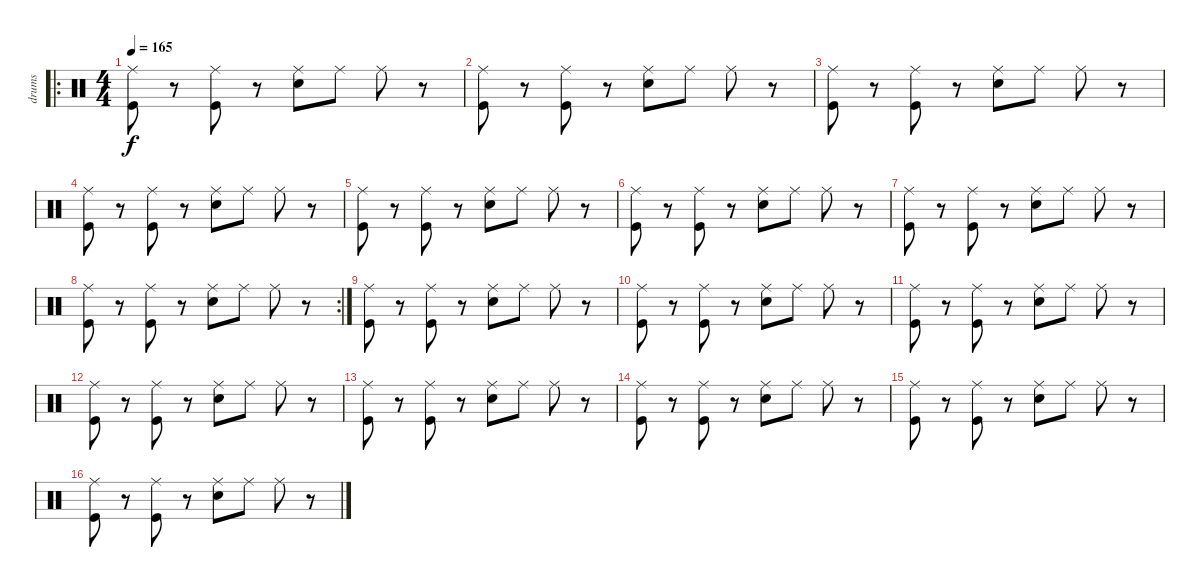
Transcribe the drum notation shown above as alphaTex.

\track ("drums" "drums") {instrument percussion}
\staff {score}
\articulation defaults
\ro
\ts (4 4)
\tempo 165
\clef neutral
\ks c
("Kick (hit)" "Ride (middle)").8{dy f} r.8 ("Kick (hit)" "Ride (middle)").8 r.8 ("Snare (hit) 2" "Ride (middle)").8 "Ride (middle)".8 "Ride (middle)".8 r.8 |
("Kick (hit)" "Ride (middle)").8 r.8 ("Kick (hit)" "Ride (middle)").8 r.8 ("Snare (hit) 2" "Ride (middle)").8 "Ride (middle)".8 "Ride (middle)".8 r.8 |
("Kick (hit)" "Ride (middle)").8 r.8 ("Kick (hit)" "Ride (middle)").8 r.8 ("Snare (hit) 2" "Ride (middle)").8 "Ride (middle)".8 "Ride (middle)".8 r.8 |
("Kick (hit)" "Ride (middle)").8 r.8 ("Kick (hit)" "Ride (middle)").8 r.8 ("Snare (hit) 2" "Ride (middle)").8 "Ride (middle)".8 "Ride (middle)".8 r.8 |
("Kick (hit)" "Ride (middle)").8 r.8 ("Kick (hit)" "Ride (middle)").8 r.8 ("Snare (hit) 2" "Ride (middle)").8 "Ride (middle)".8 "Ride (middle)".8 r.8 |
("Kick (hit)" "Ride (middle)").8 r.8 ("Kick (hit)" "Ride (middle)").8 r.8 ("Snare (hit) 2" "Ride (middle)").8 "Ride (middle)".8 "Ride (middle)".8 r.8 |
("Kick (hit)" "Ride (middle)").8 r.8 ("Kick (hit)" "Ride (middle)").8 r.8 ("Snare (hit) 2" "Ride (middle)").8 "Ride (middle)".8 "Ride (middle)".8 r.8 |
\rc 2
("Kick (hit)" "Ride (middle)").8 r.8 ("Kick (hit)" "Ride (middle)").8 r.8 ("Snare (hit) 2" "Ride (middle)").8 "Ride (middle)".8 "Ride (middle)".8 r.8 |
("Kick (hit)" "Ride (middle)").8 r.8 ("Kick (hit)" "Ride (middle)").8 r.8 ("Snare (hit) 2" "Ride (middle)").8 "Ride (middle)".8 "Ride (middle)".8 r.8 |
("Kick (hit)" "Ride (middle)").8 r.8 ("Kick (hit)" "Ride (middle)").8 r.8 ("Snare (hit) 2" "Ride (middle)").8 "Ride (middle)".8 "Ride (middle)".8 r.8 |
("Kick (hit)" "Ride (middle)").8 r.8 ("Kick (hit)" "Ride (middle)").8 r.8 ("Snare (hit) 2" "Ride (middle)").8 "Ride (middle)".8 "Ride (middle)".8 r.8 |
("Kick (hit)" "Ride (middle)").8 r.8 ("Kick (hit)" "Ride (middle)").8 r.8 ("Snare (hit) 2" "Ride (middle)").8 "Ride (middle)".8 "Ride (middle)".8 r.8 |
("Kick (hit)" "Ride (middle)").8 r.8 ("Kick (hit)" "Ride (middle)").8 r.8 ("Snare (hit) 2" "Ride (middle)").8 "Ride (middle)".8 "Ride (middle)".8 r.8 |
("Kick (hit)" "Ride (middle)").8 r.8 ("Kick (hit)" "Ride (middle)").8 r.8 ("Snare (hit) 2" "Ride (middle)").8 "Ride (middle)".8 "Ride (middle)".8 r.8 |
("Kick (hit)" "Ride (middle)").8 r.8 ("Kick (hit)" "Ride (middle)").8 r.8 ("Snare (hit) 2" "Ride (middle)").8 "Ride (middle)".8 "Ride (middle)".8 r.8 |
("Kick (hit)" "Ride (middle)").8 r.8 ("Kick (hit)" "Ride (middle)").8 r.8 ("Snare (hit) 2" "Ride (middle)").8 "Ride (middle)".8 "Ride (middle)".8 r.8
